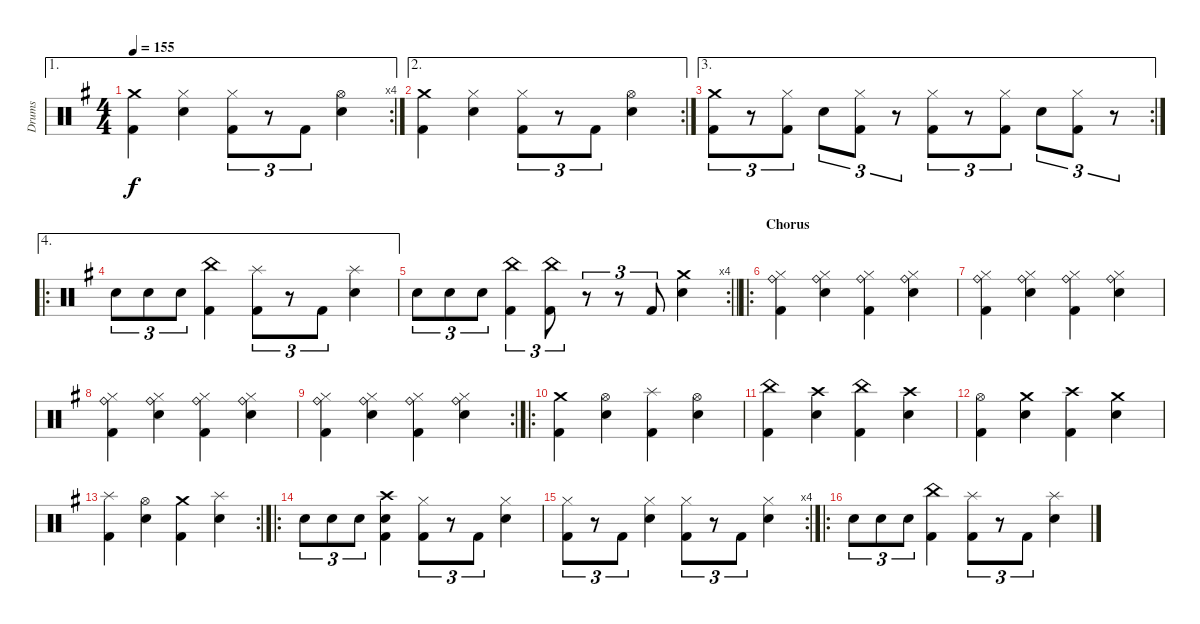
\track ("Drums" "Drums") {instrument percussion}
\staff {score}
\articulation defaults
\ae 1
\rc 4
\ts (4 4)
\tempo 155
\clef neutral
\ks eminor
("Crash medium (hit)" "Kick (hit) 2").4{dy f} ("Hi-Hat (closed)" "Snare (hit) 2").4 ("Hi-Hat (closed)" "Kick (hit) 2").8{tu (3 2)} r.8{tu (3 2)} "Kick (hit) 2".8{tu (3 2)} ("Hi-Hat (open)" "Snare (hit) 2").4 |
\ae 2
\rc 2
("Crash medium (hit)" "Kick (hit) 2").4 ("Hi-Hat (closed)" "Snare (hit) 2").4 ("Hi-Hat (closed)" "Kick (hit) 2").8{tu (3 2)} r.8{tu (3 2)} "Kick (hit) 2".8{tu (3 2)} ("Hi-Hat (open)" "Snare (hit) 2").4 |
\ae 3
\rc 2
("Crash medium (hit)" "Kick (hit) 2").8{tu (3 2)} r.8{tu (3 2)} ("Hi-Hat (closed)" "Kick (hit) 2").8{tu (3 2)} "Snare (hit) 2".8{tu (3 2)} ("Hi-Hat (closed)" "Kick (hit) 2").8{tu (3 2)} r.8{tu (3 2)} ("Hi-Hat (closed)" "Kick (hit) 2").8{tu (3 2)} r.8{tu (3 2)} ("Hi-Hat (closed)" "Kick (hit) 2").8{tu (3 2)} "Snare (hit) 2".8{tu (3 2)} ("Hi-Hat (closed)" "Kick (hit) 2").8{tu (3 2)} r.8{tu (3 2)} |
\ae 4
\ro "Electric Snare (hit)".8{tu (3 2)} "Electric Snare (hit)".8{tu (3 2)} "Electric Snare (hit)".8{tu (3 2)}
("China (hit)" "Kick (hit) 2").4 ("Splash (hit)" "Kick (hit) 2").8{tu (3 2)} r.8{tu (3 2)} "Kick (hit) 2".8{tu (3 2)} ("Splash (hit)" "Electric Snare (hit)").4 |
\rc 4
\barLineRight lightlight "Electric Snare (hit)".8{tu (3 2)} "Electric Snare (hit)".8{tu (3 2)} "Electric Snare (hit)".8{tu (3 2)}
("China (hit)" "Kick (hit) 2").4{tu (3 2)} ("China (hit)" "Kick (hit) 2").8{tu (3 2)} r.8{tu (3 2)} r.8{tu (3 2)} "Kick (hit) 2".8{tu (3 2)} ("Crash medium (hit)" "Electric Snare (hit)").4 |
\ro
\section ("" "Chorus")
("Ride (bell)" "Hi-Hat (closed)" "Kick (hit) 2").4 ("Ride (bell)" "Hi-Hat (closed)" "Snare (hit) 2").4 ("Ride (bell)" "Hi-Hat (closed)" "Kick (hit) 2").4 ("Ride (bell)" "Hi-Hat (closed)" "Snare (hit) 2").4 |
("Ride (bell)" "Hi-Hat (closed)" "Kick (hit) 2").4 ("Ride (bell)" "Hi-Hat (closed)" "Snare (hit) 2").4 ("Ride (bell)" "Hi-Hat (closed)" "Kick (hit) 2").4 ("Ride (bell)" "Hi-Hat (closed)" "Snare (hit) 2").4 |
("Ride (bell)" "Hi-Hat (closed)" "Kick (hit) 2").4 ("Ride (bell)" "Hi-Hat (closed)" "Snare (hit) 2").4 ("Ride (bell)" "Hi-Hat (closed)" "Kick (hit) 2").4 ("Ride (bell)" "Hi-Hat (closed)" "Snare (hit) 2").4 |
\rc 2
("Ride (bell)" "Hi-Hat (closed)" "Kick (hit) 2").4 ("Ride (bell)" "Hi-Hat (closed)" "Snare (hit) 2").4 ("Ride (bell)" "Hi-Hat (closed)" "Kick (hit) 2").4 ("Ride (bell)" "Hi-Hat (closed)" "Snare (hit) 2").4 |
\ro
("Crash medium (hit)" "Kick (hit) 2").4 ("Hi-Hat (open)" "Snare (hit) 2").4 ("Splash (hit)" "Kick (hit) 2").4 ("Hi-Hat (open)" "Snare (hit) 2").4 |
("China (hit)" "Kick (hit) 2").4 ("Crash high (hit)" "Snare (hit) 2").4 ("China (hit)" "Kick (hit) 2").4 ("Crash high (hit)" "Snare (hit) 2").4 |
("Hi-Hat (open)" "Kick (hit) 2").4 ("Crash medium (hit)" "Snare (hit) 2").4 ("Crash high (hit)" "Kick (hit) 2").4 ("Crash medium (hit)" "Snare (hit) 2").4 |
\rc 2
("Splash (hit)" "Kick (hit) 2").4 ("Hi-Hat (open)" "Snare (hit) 2").4 ("Crash medium (hit)" "Kick (hit) 2").4 ("Splash (hit)" "Snare (hit) 2").4 |
\ro "Electric Snare (hit)".8{tu (3 2)} "Electric Snare (hit)".8{tu (3 2)} "Electric Snare (hit)".8{tu (3 2)}
("Crash high (hit)" "Snare (hit) 2" "Kick (hit) 2").4 ("Hi-Hat (closed)" "Kick (hit) 2").8{tu (3 2)} r.8{tu (3 2)} "Kick (hit) 2".8{tu (3 2)} ("Hi-Hat (closed)" "Snare (hit) 2").4 |
\rc 4
("Hi-Hat (closed)" "Kick (hit) 2").8{tu (3 2)} r.8{tu (3 2)} "Kick (hit) 2".8{tu (3 2)} ("Hi-Hat (closed)" "Snare (hit) 2").4 ("Hi-Hat (closed)" "Kick (hit) 2").8{tu (3 2)} r.8{tu (3 2)} "Kick (hit) 2".8{tu (3 2)} ("Hi-Hat (closed)" "Snare (hit) 2").4 |
\ro "Electric Snare (hit)".8{tu (3 2)} "Electric Snare (hit)".8{tu (3 2)} "Electric Snare (hit)".8{tu (3 2)}
("China (hit)" "Kick (hit) 2").4 ("Splash (hit)" "Kick (hit) 2").8{tu (3 2)} r.8{tu (3 2)} "Kick (hit) 2".8{tu (3 2)} ("Splash (hit)" "Electric Snare (hit)").4
